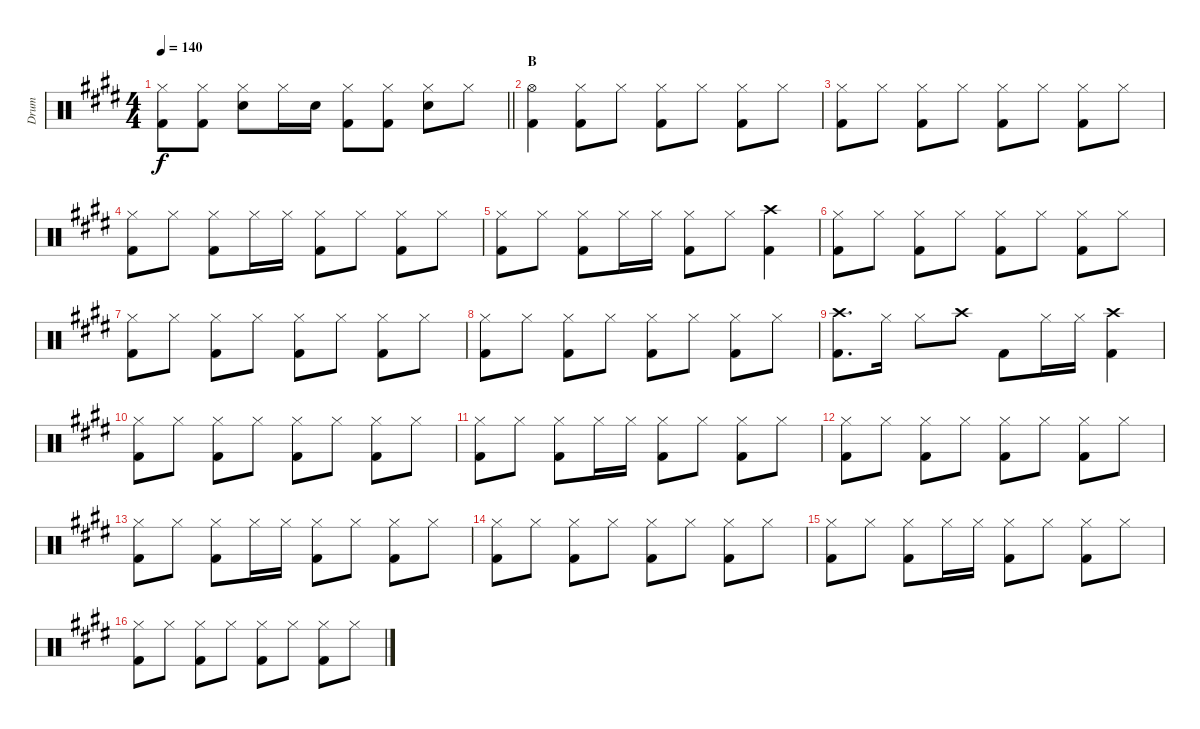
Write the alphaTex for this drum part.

\track ("Drum" "Drum") {instrument percussion}
\staff {score}
\articulation defaults
\ts (4 4)
\tempo 140
\clef neutral
\barLineRight lightlight
\ks c#minor
("Hi-Hat (closed)" "Kick (hit) 2").8{dy f} ("Hi-Hat (closed)" "Kick (hit) 2").8 ("Hi-Hat (closed)" "Snare (hit) 2").8 "Hi-Hat (closed)".16 "Snare (hit) 2".16 ("Hi-Hat (closed)" "Kick (hit) 2").8 ("Hi-Hat (closed)" "Kick (hit) 2").8 ("Hi-Hat (closed)" "Snare (hit) 2").8 "Hi-Hat (closed)".8 |
\section ("" "B")
("Hi-Hat (open)" "Kick (hit) 2").4 ("Hi-Hat (closed)" "Kick (hit) 2").8 "Hi-Hat (closed)".8 ("Hi-Hat (closed)" "Kick (hit) 2").8 "Hi-Hat (closed)".8 ("Hi-Hat (closed)" "Kick (hit) 2").8 "Hi-Hat (closed)".8 |
("Hi-Hat (closed)" "Kick (hit) 2").8 "Hi-Hat (closed)".8 ("Hi-Hat (closed)" "Kick (hit) 2").8 "Hi-Hat (closed)".8 ("Hi-Hat (closed)" "Kick (hit) 2").8 "Hi-Hat (closed)".8 ("Hi-Hat (closed)" "Kick (hit) 2").8 "Hi-Hat (closed)".8 |
("Hi-Hat (closed)" "Kick (hit) 2").8 "Hi-Hat (closed)".8 ("Hi-Hat (closed)" "Kick (hit) 2").8 "Hi-Hat (closed)".16 "Hi-Hat (closed)".16 ("Hi-Hat (closed)" "Kick (hit) 2").8 "Hi-Hat (closed)".8 ("Hi-Hat (closed)" "Kick (hit) 2").8 "Hi-Hat (closed)".8 |
("Hi-Hat (closed)" "Kick (hit) 2").8 "Hi-Hat (closed)".8 ("Hi-Hat (closed)" "Kick (hit) 2").8 "Hi-Hat (closed)".16 "Hi-Hat (closed)".16 ("Hi-Hat (closed)" "Kick (hit) 2").8 "Hi-Hat (closed)".8 ("Crash high (hit)" "Kick (hit) 2").4 |
("Hi-Hat (closed)" "Kick (hit) 2").8 "Hi-Hat (closed)".8 ("Hi-Hat (closed)" "Kick (hit) 2").8 "Hi-Hat (closed)".8 ("Hi-Hat (closed)" "Kick (hit) 2").8 "Hi-Hat (closed)".8 ("Hi-Hat (closed)" "Kick (hit) 2").8 "Hi-Hat (closed)".8 |
("Hi-Hat (closed)" "Kick (hit) 2").8 "Hi-Hat (closed)".8 ("Hi-Hat (closed)" "Kick (hit) 2").8 "Hi-Hat (closed)".8 ("Hi-Hat (closed)" "Kick (hit) 2").8 "Hi-Hat (closed)".8 ("Hi-Hat (closed)" "Kick (hit) 2").8 "Hi-Hat (closed)".8 |
("Hi-Hat (closed)" "Kick (hit) 2").8 "Hi-Hat (closed)".8 ("Hi-Hat (closed)" "Kick (hit) 2").8 "Hi-Hat (closed)".8 ("Hi-Hat (closed)" "Kick (hit) 2").8 "Hi-Hat (closed)".8 ("Hi-Hat (closed)" "Kick (hit) 2").8 "Hi-Hat (closed)".8 |
("Crash high (hit)" "Kick (hit) 2").8{d} "Hi-Hat (closed)".16 "Hi-Hat (closed)".8 "Crash high (hit)".8 "Kick (hit) 2".8 "Hi-Hat (closed)".16 "Hi-Hat (closed)".16 ("Crash high (hit)" "Kick (hit) 2").4 |
("Hi-Hat (closed)" "Kick (hit) 2").8 "Hi-Hat (closed)".8 ("Hi-Hat (closed)" "Kick (hit) 2").8 "Hi-Hat (closed)".8 ("Hi-Hat (closed)" "Kick (hit) 2").8 "Hi-Hat (closed)".8 ("Hi-Hat (closed)" "Kick (hit) 2").8 "Hi-Hat (closed)".8 |
("Hi-Hat (closed)" "Kick (hit) 2").8 "Hi-Hat (closed)".8 ("Hi-Hat (closed)" "Kick (hit) 2").8 "Hi-Hat (closed)".16 "Hi-Hat (closed)".16 ("Hi-Hat (closed)" "Kick (hit) 2").8 "Hi-Hat (closed)".8 ("Hi-Hat (closed)" "Kick (hit) 2").8 "Hi-Hat (closed)".8 |
("Hi-Hat (closed)" "Kick (hit) 2").8 "Hi-Hat (closed)".8 ("Hi-Hat (closed)" "Kick (hit) 2").8 "Hi-Hat (closed)".8 ("Hi-Hat (closed)" "Kick (hit) 2").8 "Hi-Hat (closed)".8 ("Hi-Hat (closed)" "Kick (hit) 2").8 "Hi-Hat (closed)".8 |
("Hi-Hat (closed)" "Kick (hit) 2").8 "Hi-Hat (closed)".8 ("Hi-Hat (closed)" "Kick (hit) 2").8 "Hi-Hat (closed)".16 "Hi-Hat (closed)".16 ("Hi-Hat (closed)" "Kick (hit) 2").8 "Hi-Hat (closed)".8 ("Hi-Hat (closed)" "Kick (hit) 2").8 "Hi-Hat (closed)".8 |
("Hi-Hat (closed)" "Kick (hit) 2").8 "Hi-Hat (closed)".8 ("Hi-Hat (closed)" "Kick (hit) 2").8 "Hi-Hat (closed)".8 ("Hi-Hat (closed)" "Kick (hit) 2").8 "Hi-Hat (closed)".8 ("Hi-Hat (closed)" "Kick (hit) 2").8 "Hi-Hat (closed)".8 |
("Hi-Hat (closed)" "Kick (hit) 2").8 "Hi-Hat (closed)".8 ("Hi-Hat (closed)" "Kick (hit) 2").8 "Hi-Hat (closed)".16 "Hi-Hat (closed)".16 ("Hi-Hat (closed)" "Kick (hit) 2").8 "Hi-Hat (closed)".8 ("Hi-Hat (closed)" "Kick (hit) 2").8 "Hi-Hat (closed)".8 |
("Hi-Hat (closed)" "Kick (hit) 2").8 "Hi-Hat (closed)".8 ("Hi-Hat (closed)" "Kick (hit) 2").8 "Hi-Hat (closed)".8 ("Hi-Hat (closed)" "Kick (hit) 2").8 "Hi-Hat (closed)".8 ("Hi-Hat (closed)" "Kick (hit) 2").8 "Hi-Hat (closed)".8
